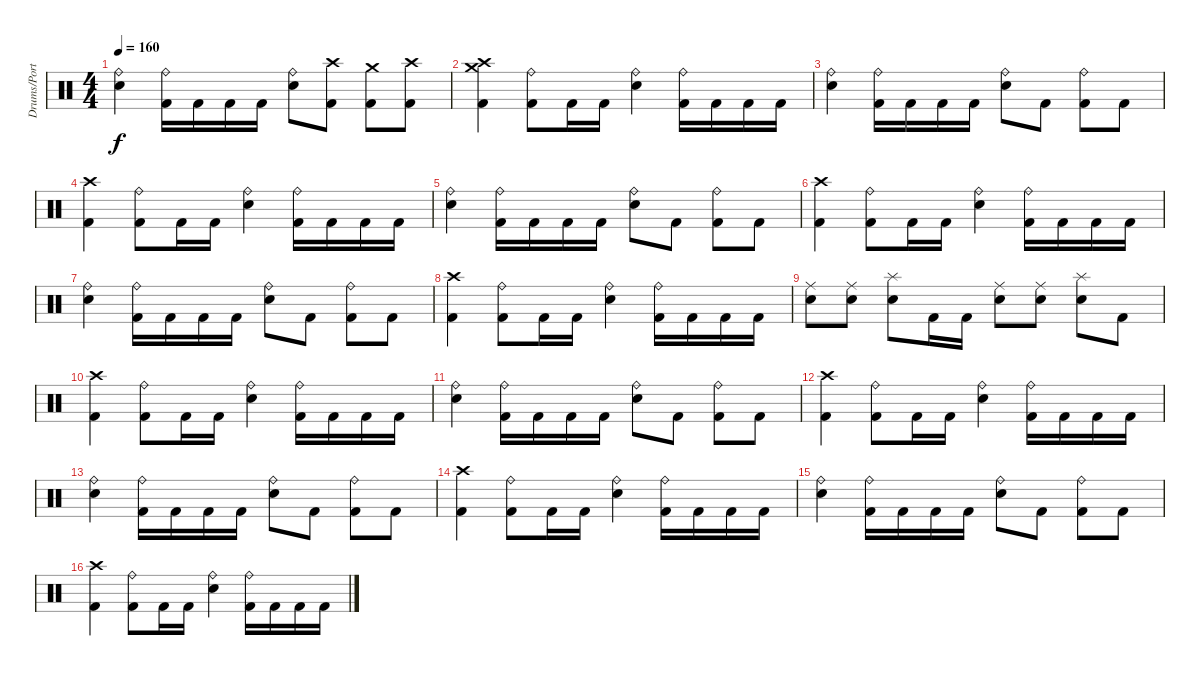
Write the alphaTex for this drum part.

\track ("Drums/Portnoy" "Drums/Port") {instrument percussion}
\staff {score}
\articulation defaults
\ts (4 4)
\tempo 160
\clef neutral
\ks c
("Ride (bell)" "Electric Snare (hit)").4{dy f} ("Ride (bell)" "Kick (hit) 2").16 "Kick (hit) 2".16 "Kick (hit) 2".16 "Kick (hit) 2".16 ("Ride (bell)" "Electric Snare (hit)").8 ("Crash high (hit)" "Kick (hit) 2").8 ("Crash medium (hit)" "Kick (hit) 2").8 ("Crash high (hit)" "Kick (hit) 2").8 |
("Crash high (hit)" "Crash medium (hit)" "Kick (hit) 2").4 ("Ride (bell)" "Kick (hit) 2").8 "Kick (hit) 2".16 "Kick (hit) 2".16 ("Ride (bell)" "Electric Snare (hit)").4 ("Ride (bell)" "Kick (hit) 2").16 "Kick (hit) 2".16 "Kick (hit) 2".16 "Kick (hit) 2".16 |
("Ride (bell)" "Electric Snare (hit)").4 ("Ride (bell)" "Kick (hit) 2").16 "Kick (hit) 2".16 "Kick (hit) 2".16 "Kick (hit) 2".16 ("Ride (bell)" "Electric Snare (hit)").8 "Kick (hit) 2".8 ("Ride (bell)" "Kick (hit) 2").8 "Kick (hit) 2".8 |
("Crash high (hit)" "Kick (hit) 2").4 ("Ride (bell)" "Kick (hit) 2").8 "Kick (hit) 2".16 "Kick (hit) 2".16 ("Ride (bell)" "Electric Snare (hit)").4 ("Ride (bell)" "Kick (hit) 2").16 "Kick (hit) 2".16 "Kick (hit) 2".16 "Kick (hit) 2".16 |
("Ride (bell)" "Electric Snare (hit)").4 ("Ride (bell)" "Kick (hit) 2").16 "Kick (hit) 2".16 "Kick (hit) 2".16 "Kick (hit) 2".16 ("Ride (bell)" "Electric Snare (hit)").8 "Kick (hit) 2".8 ("Ride (bell)" "Kick (hit) 2").8 "Kick (hit) 2".8 |
("Crash high (hit)" "Kick (hit) 2").4 ("Ride (bell)" "Kick (hit) 2").8 "Kick (hit) 2".16 "Kick (hit) 2".16 ("Ride (bell)" "Electric Snare (hit)").4 ("Ride (bell)" "Kick (hit) 2").16 "Kick (hit) 2".16 "Kick (hit) 2".16 "Kick (hit) 2".16 |
("Ride (bell)" "Electric Snare (hit)").4 ("Ride (bell)" "Kick (hit) 2").16 "Kick (hit) 2".16 "Kick (hit) 2".16 "Kick (hit) 2".16 ("Ride (bell)" "Electric Snare (hit)").8 "Kick (hit) 2".8 ("Ride (bell)" "Kick (hit) 2").8 "Kick (hit) 2".8 |
("Crash high (hit)" "Kick (hit) 2").4 ("Ride (bell)" "Kick (hit) 2").8 "Kick (hit) 2".16 "Kick (hit) 2".16 ("Ride (bell)" "Electric Snare (hit)").4 ("Ride (bell)" "Kick (hit) 2").16 "Kick (hit) 2".16 "Kick (hit) 2".16 "Kick (hit) 2".16 |
("Ride (middle)" "Electric Snare (hit)").8 ("Ride (middle)" "Electric Snare (hit)").8 ("Splash (hit)" "Electric Snare (hit)").8 "Kick (hit) 2".16 "Kick (hit) 2".16 ("Ride (middle)" "Electric Snare (hit)").8 ("Ride (middle)" "Electric Snare (hit)").8 ("Splash (hit)" "Electric Snare (hit)").8 "Kick (hit) 2".8 |
("Crash high (hit)" "Kick (hit) 2").4 ("Ride (bell)" "Kick (hit) 2").8 "Kick (hit) 2".16 "Kick (hit) 2".16 ("Ride (bell)" "Electric Snare (hit)").4 ("Ride (bell)" "Kick (hit) 2").16 "Kick (hit) 2".16 "Kick (hit) 2".16 "Kick (hit) 2".16 |
("Ride (bell)" "Electric Snare (hit)").4 ("Ride (bell)" "Kick (hit) 2").16 "Kick (hit) 2".16 "Kick (hit) 2".16 "Kick (hit) 2".16 ("Ride (bell)" "Electric Snare (hit)").8 "Kick (hit) 2".8 ("Ride (bell)" "Kick (hit) 2").8 "Kick (hit) 2".8 |
("Crash high (hit)" "Kick (hit) 2").4 ("Ride (bell)" "Kick (hit) 2").8 "Kick (hit) 2".16 "Kick (hit) 2".16 ("Ride (bell)" "Electric Snare (hit)").4 ("Ride (bell)" "Kick (hit) 2").16 "Kick (hit) 2".16 "Kick (hit) 2".16 "Kick (hit) 2".16 |
("Ride (bell)" "Electric Snare (hit)").4 ("Ride (bell)" "Kick (hit) 2").16 "Kick (hit) 2".16 "Kick (hit) 2".16 "Kick (hit) 2".16 ("Ride (bell)" "Electric Snare (hit)").8 "Kick (hit) 2".8 ("Ride (bell)" "Kick (hit) 2").8 "Kick (hit) 2".8 |
("Crash high (hit)" "Kick (hit) 2").4 ("Ride (bell)" "Kick (hit) 2").8 "Kick (hit) 2".16 "Kick (hit) 2".16 ("Ride (bell)" "Electric Snare (hit)").4 ("Ride (bell)" "Kick (hit) 2").16 "Kick (hit) 2".16 "Kick (hit) 2".16 "Kick (hit) 2".16 |
("Ride (bell)" "Electric Snare (hit)").4 ("Ride (bell)" "Kick (hit) 2").16 "Kick (hit) 2".16 "Kick (hit) 2".16 "Kick (hit) 2".16 ("Ride (bell)" "Electric Snare (hit)").8 "Kick (hit) 2".8 ("Ride (bell)" "Kick (hit) 2").8 "Kick (hit) 2".8 |
("Crash high (hit)" "Kick (hit) 2").4 ("Ride (bell)" "Kick (hit) 2").8 "Kick (hit) 2".16 "Kick (hit) 2".16 ("Ride (bell)" "Electric Snare (hit)").4 ("Ride (bell)" "Kick (hit) 2").16 "Kick (hit) 2".16 "Kick (hit) 2".16 "Kick (hit) 2".16
